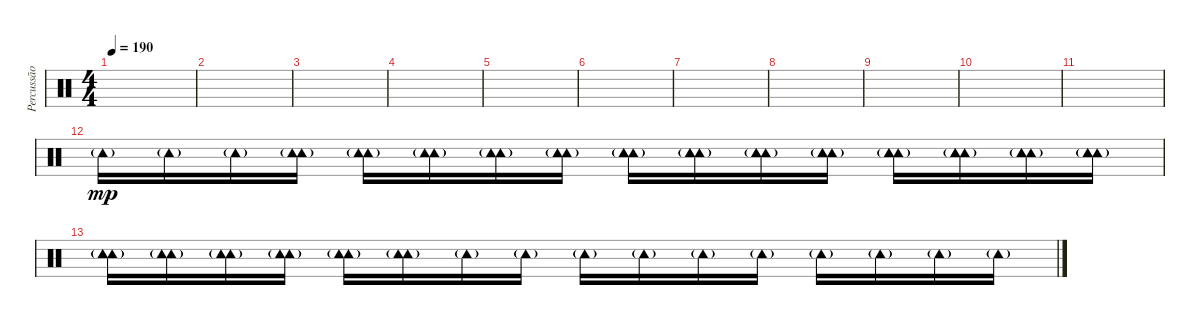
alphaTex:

\track ("Percussão" "Percussão") {instrument percussion}
\staff {score}
\articulation defaults
\ts (4 4)
\tempo 190
\clef neutral
\ks c
|
|
|
|
|
|
|
|
|
|
|
"Tambourine (hit)"{g}.16{dy mp} "Tambourine (hit)"{g}.16 "Tambourine (hit)"{g}.16 ("Tambourine (hit)"{g} "Tambourine (hit)"{g}).16 ("Tambourine (hit)"{g} "Tambourine (hit)"{g}).16 ("Tambourine (hit)"{g} "Tambourine (hit)"{g}).16 ("Tambourine (hit)"{g} "Tambourine (hit)"{g}).16 ("Tambourine (hit)"{g} "Tambourine (hit)"{g}).16 ("Tambourine (hit)"{g} "Tambourine (hit)"{g} "Tambourine (hit)"{g}).16 ("Tambourine (hit)"{g} "Tambourine (hit)"{g} "Tambourine (hit)"{g}).16 ("Tambourine (hit)"{g} "Tambourine (hit)"{g} "Tambourine (hit)"{g}).16 ("Tambourine (hit)"{g} "Tambourine (hit)"{g} "Tambourine (hit)"{g}).16 ("Tambourine (hit)"{g} "Tambourine (hit)"{g} "Tambourine (hit)"{g}).16 ("Tambourine (hit)"{g} "Tambourine (hit)"{g} "Tambourine (hit)"{g}).16 ("Tambourine (hit)"{g} "Tambourine (hit)"{g} "Tambourine (hit)"{g}).16 ("Tambourine (hit)"{g} "Tambourine (hit)"{g} "Tambourine (hit)"{g}).16 |
("Tambourine (hit)"{g} "Tambourine (hit)"{g} "Tambourine (hit)"{g}).16 ("Tambourine (hit)"{g} "Tambourine (hit)"{g}).16 ("Tambourine (hit)"{g} "Tambourine (hit)"{g}).16 ("Tambourine (hit)"{g} "Tambourine (hit)"{g}).16 ("Tambourine (hit)"{g} "Tambourine (hit)"{g}).16 ("Tambourine (hit)"{g} "Tambourine (hit)"{g}).16 "Tambourine (hit)"{g}.16 "Tambourine (hit)"{g}.16 "Tambourine (hit)"{g}.16 "Tambourine (hit)"{g}.16 "Tambourine (hit)"{g}.16 "Tambourine (hit)"{g}.16 "Tambourine (hit)"{g}.16 "Tambourine (hit)"{g}.16 "Tambourine (hit)"{g}.16 "Tambourine (hit)"{g}.16
